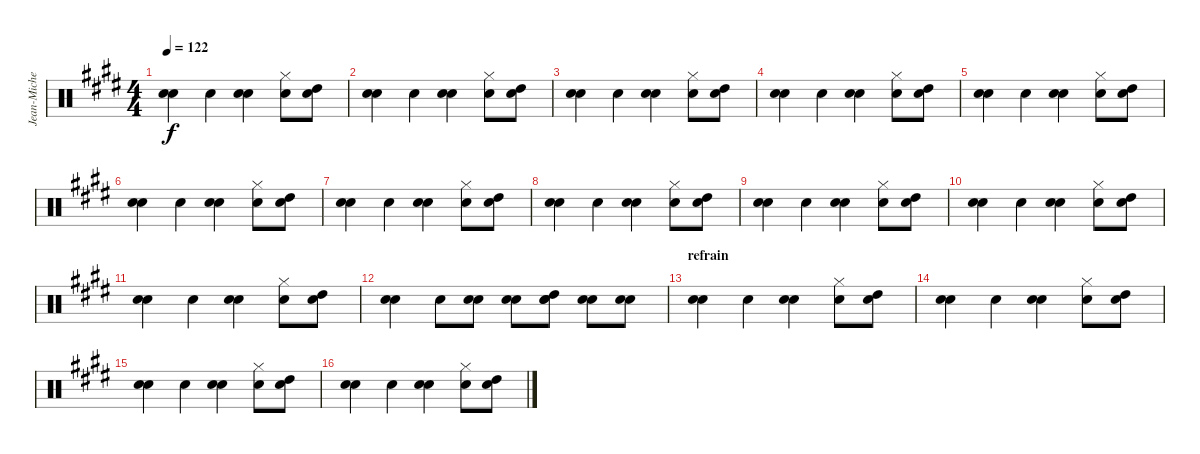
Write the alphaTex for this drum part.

\track ("Jean-Michel Truong (Batterie)" "Jean-Miche") {instrument percussion}
\staff {score}
\articulation defaults
\ts (4 4)
\tempo 122
\clef neutral
\ks e
("Snare (hit) 2" "Electric Snare (hit)").4{dy f} "Electric Snare (hit)".4 ("Snare (hit) 2" "Electric Snare (hit)").4 ("Electric Snare (hit)" "Hi-Hat (closed)").8 ("Electric Snare (hit)" "High Tom (hit)").8 |
("Snare (hit) 2" "Electric Snare (hit)").4 "Electric Snare (hit)".4 ("Snare (hit) 2" "Electric Snare (hit)").4 ("Electric Snare (hit)" "Hi-Hat (closed)").8 ("Electric Snare (hit)" "High Tom (hit)").8 |
("Snare (hit) 2" "Electric Snare (hit)").4 "Electric Snare (hit)".4 ("Snare (hit) 2" "Electric Snare (hit)").4 ("Electric Snare (hit)" "Hi-Hat (closed)").8 ("Electric Snare (hit)" "High Tom (hit)").8 |
("Snare (hit) 2" "Electric Snare (hit)").4 "Electric Snare (hit)".4 ("Snare (hit) 2" "Electric Snare (hit)").4 ("Electric Snare (hit)" "Hi-Hat (closed)").8 ("Electric Snare (hit)" "High Tom (hit)").8 |
("Snare (hit) 2" "Electric Snare (hit)").4 "Electric Snare (hit)".4 ("Snare (hit) 2" "Electric Snare (hit)").4 ("Electric Snare (hit)" "Hi-Hat (closed)").8 ("Electric Snare (hit)" "High Tom (hit)").8 |
("Snare (hit) 2" "Electric Snare (hit)").4 "Electric Snare (hit)".4 ("Snare (hit) 2" "Electric Snare (hit)").4 ("Electric Snare (hit)" "Hi-Hat (closed)").8 ("Electric Snare (hit)" "High Tom (hit)").8 |
("Snare (hit) 2" "Electric Snare (hit)").4 "Electric Snare (hit)".4 ("Snare (hit) 2" "Electric Snare (hit)").4 ("Electric Snare (hit)" "Hi-Hat (closed)").8 ("Electric Snare (hit)" "High Tom (hit)").8 |
("Snare (hit) 2" "Electric Snare (hit)").4 "Electric Snare (hit)".4 ("Snare (hit) 2" "Electric Snare (hit)").4 ("Electric Snare (hit)" "Hi-Hat (closed)").8 ("Electric Snare (hit)" "High Tom (hit)").8 |
("Snare (hit) 2" "Electric Snare (hit)").4 "Electric Snare (hit)".4 ("Snare (hit) 2" "Electric Snare (hit)").4 ("Electric Snare (hit)" "Hi-Hat (closed)").8 ("Electric Snare (hit)" "High Tom (hit)").8 |
("Snare (hit) 2" "Electric Snare (hit)").4 "Electric Snare (hit)".4 ("Snare (hit) 2" "Electric Snare (hit)").4 ("Electric Snare (hit)" "Hi-Hat (closed)").8 ("Electric Snare (hit)" "High Tom (hit)").8 |
("Snare (hit) 2" "Electric Snare (hit)").4 "Electric Snare (hit)".4 ("Snare (hit) 2" "Electric Snare (hit)").4 ("Electric Snare (hit)" "Hi-Hat (closed)").8 ("Electric Snare (hit)" "High Tom (hit)").8 |
("Snare (hit) 2" "Electric Snare (hit)").4 "Electric Snare (hit)".8 ("Snare (hit) 2" "Electric Snare (hit)").8 ("Snare (hit) 2" "Electric Snare (hit)").8 ("Snare (hit) 2" "Electric Snare (hit)" "High Tom (hit)").8 ("Snare (hit) 2" "Electric Snare (hit)").8 ("Snare (hit) 2" "Electric Snare (hit)").8 |
\section ("" "refrain")
("Snare (hit) 2" "Electric Snare (hit)").4 "Electric Snare (hit)".4 ("Snare (hit) 2" "Electric Snare (hit)").4 ("Electric Snare (hit)" "Hi-Hat (closed)").8 ("Electric Snare (hit)" "High Tom (hit)").8 |
("Snare (hit) 2" "Electric Snare (hit)").4 "Electric Snare (hit)".4 ("Snare (hit) 2" "Electric Snare (hit)").4 ("Electric Snare (hit)" "Hi-Hat (closed)").8 ("Electric Snare (hit)" "High Tom (hit)").8 |
("Snare (hit) 2" "Electric Snare (hit)").4 "Electric Snare (hit)".4 ("Snare (hit) 2" "Electric Snare (hit)").4 ("Electric Snare (hit)" "Hi-Hat (closed)").8 ("Electric Snare (hit)" "High Tom (hit)").8 |
("Snare (hit) 2" "Electric Snare (hit)").4 "Electric Snare (hit)".4 ("Snare (hit) 2" "Electric Snare (hit)").4 ("Electric Snare (hit)" "Hi-Hat (closed)").8 ("Electric Snare (hit)" "High Tom (hit)").8
